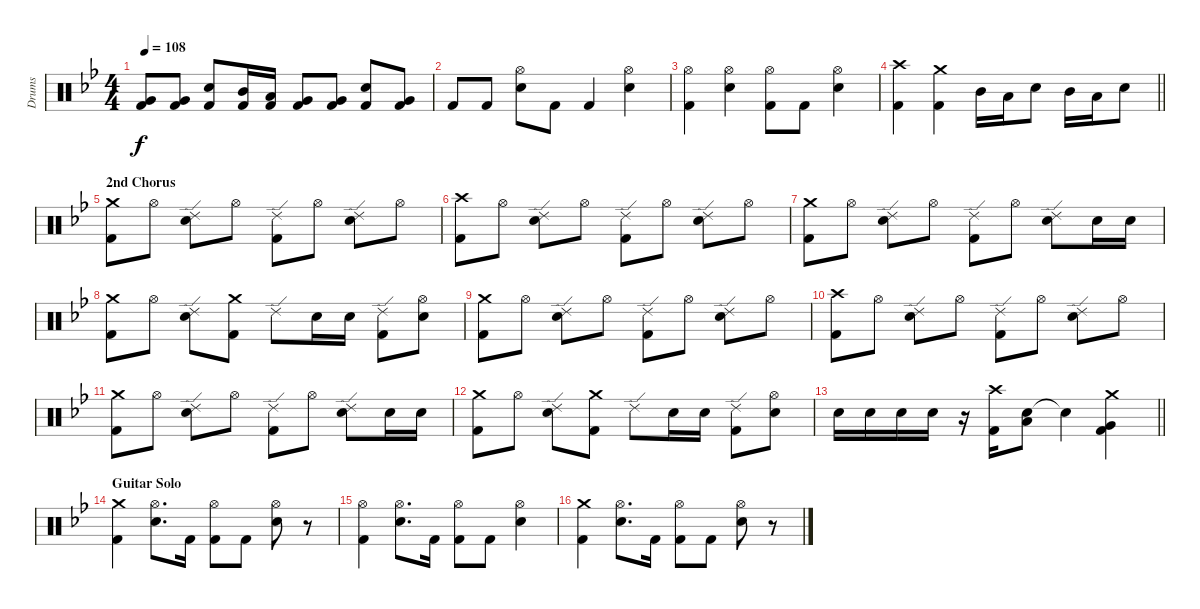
\track ("Drums" "Drums") {instrument percussion}
\staff {score}
\articulation defaults
\ts (4 4)
\tempo 108
\clef neutral
\ks gminor
("Very Low Tom (hit)" "Kick (hit) 2").8{dy f} ("Very Low Tom (hit)" "Kick (hit) 2").8 ("Snare (hit) 2" "Kick (hit) 2").8 ("Mid Tom (hit)" "Kick (hit) 2").16 ("Low Tom (hit)" "Kick (hit) 2").16 ("Very Low Tom (hit)" "Kick (hit) 2").8 ("Very Low Tom (hit)" "Kick (hit) 2").8 ("Snare (hit) 2" "Kick (hit) 2").8 ("Very Low Tom (hit)" "Kick (hit) 2").8 |
"Kick (hit) 2".8 "Kick (hit) 2".8 ("Hi-Hat (open)" "Snare (hit) 2").8 "Kick (hit) 2".8 "Kick (hit) 2".4 ("Hi-Hat (open)" "Snare (hit) 2").4 |
("Hi-Hat (open)" "Kick (hit) 2").4 ("Hi-Hat (open)" "Snare (hit) 2").4 ("Hi-Hat (open)" "Kick (hit) 2").8 "Kick (hit) 2".8 ("Hi-Hat (open)" "Snare (hit) 2").4 |
\barLineRight lightlight
("Crash high (hit)" "Kick (hit) 2").4 ("Crash medium (hit)" "Kick (hit) 2").4 "Mid Tom (hit)".16 "Low Tom (hit)".16 "Snare (hit) 2".8 "Mid Tom (hit)".16 "Low Tom (hit)".16 "Snare (hit) 2".8 |
\section ("" "2nd Chorus")
("Crash medium (hit)" "Kick (hit) 2").8 "Hi-Hat (open)".8 ("Ride (edge) 2" "Snare (hit) 2").8 "Hi-Hat (open)".8 ("Ride (edge) 2" "Kick (hit) 2").8 "Hi-Hat (open)".8 ("Ride (edge) 2" "Snare (hit) 2").8 "Hi-Hat (open)".8 |
("Crash high (hit)" "Kick (hit) 2").8 "Hi-Hat (open)".8 ("Ride (edge) 2" "Snare (hit) 2").8 "Hi-Hat (open)".8 ("Ride (edge) 2" "Kick (hit) 2").8 "Hi-Hat (open)".8 ("Ride (edge) 2" "Snare (hit) 2").8 "Hi-Hat (open)".8 |
("Crash medium (hit)" "Kick (hit) 2").8 "Hi-Hat (open)".8 ("Ride (edge) 2" "Snare (hit) 2").8 "Hi-Hat (open)".8 ("Ride (edge) 2" "Kick (hit) 2").8 "Hi-Hat (open)".8 ("Ride (edge) 2" "Snare (hit) 2").8 "Snare (hit) 2".16 "Snare (hit) 2".16 |
("Crash medium (hit)" "Kick (hit) 2").8 "Hi-Hat (open)".8 ("Ride (edge) 2" "Snare (hit) 2").8 ("Crash medium (hit)" "Kick (hit) 2").8 "Ride (edge) 2".8 "Snare (hit) 2".16 "Snare (hit) 2".16 ("Ride (edge) 2" "Kick (hit) 2").8 ("Hi-Hat (open)" "Snare (hit) 2").8 |
("Crash medium (hit)" "Kick (hit) 2").8 "Hi-Hat (open)".8 ("Ride (edge) 2" "Snare (hit) 2").8 "Hi-Hat (open)".8 ("Ride (edge) 2" "Kick (hit) 2").8 "Hi-Hat (open)".8 ("Ride (edge) 2" "Snare (hit) 2").8 "Hi-Hat (open)".8 |
("Crash high (hit)" "Kick (hit) 2").8 "Hi-Hat (open)".8 ("Ride (edge) 2" "Snare (hit) 2").8 "Hi-Hat (open)".8 ("Ride (edge) 2" "Kick (hit) 2").8 "Hi-Hat (open)".8 ("Ride (edge) 2" "Snare (hit) 2").8 "Hi-Hat (open)".8 |
("Crash medium (hit)" "Kick (hit) 2").8 "Hi-Hat (open)".8 ("Ride (edge) 2" "Snare (hit) 2").8 "Hi-Hat (open)".8 ("Ride (edge) 2" "Kick (hit) 2").8 "Hi-Hat (open)".8 ("Ride (edge) 2" "Snare (hit) 2").8 "Snare (hit) 2".16 "Snare (hit) 2".16 |
("Crash medium (hit)" "Kick (hit) 2").8 "Hi-Hat (open)".8 ("Ride (edge) 2" "Snare (hit) 2").8 ("Crash medium (hit)" "Kick (hit) 2").8 "Ride (edge) 2".8 "Snare (hit) 2".16 "Snare (hit) 2".16 ("Ride (edge) 2" "Kick (hit) 2").8 ("Hi-Hat (open)" "Snare (hit) 2").8 |
\barLineRight lightlight "Snare (hit) 2".16 "Snare (hit) 2".16 "Snare (hit) 2".16 "Snare (hit) 2".16
r.16 ("Crash high (hit)" "Kick (hit) 2").16 ("Snare (hit) 2" "Low Floor Tom (hit)").8 "Snare (hit)"{t}.4 ("Crash medium (hit)" "Very Low Tom (hit)" "Kick (hit) 2").4 |
\section ("" "Guitar Solo")
("Crash medium (hit)" "Kick (hit) 2").4 ("Hi-Hat (open)" "Snare (hit) 2").8{d} "Kick (hit) 2".16 ("Hi-Hat (open)" "Kick (hit) 2").8 "Kick (hit) 2".8 ("Hi-Hat (open)" "Snare (hit) 2").8 r.8 |
("Hi-Hat (open)" "Kick (hit) 2").4 ("Hi-Hat (open)" "Snare (hit) 2").8{d} "Kick (hit) 2".16 ("Hi-Hat (open)" "Kick (hit) 2").8 "Kick (hit) 2".8 ("Hi-Hat (open)" "Snare (hit) 2").4 |
("Crash medium (hit)" "Kick (hit) 2").4 ("Hi-Hat (open)" "Snare (hit) 2").8{d} "Kick (hit) 2".16 ("Hi-Hat (open)" "Kick (hit) 2").8 "Kick (hit) 2".8 ("Hi-Hat (open)" "Snare (hit) 2").8 r.8
